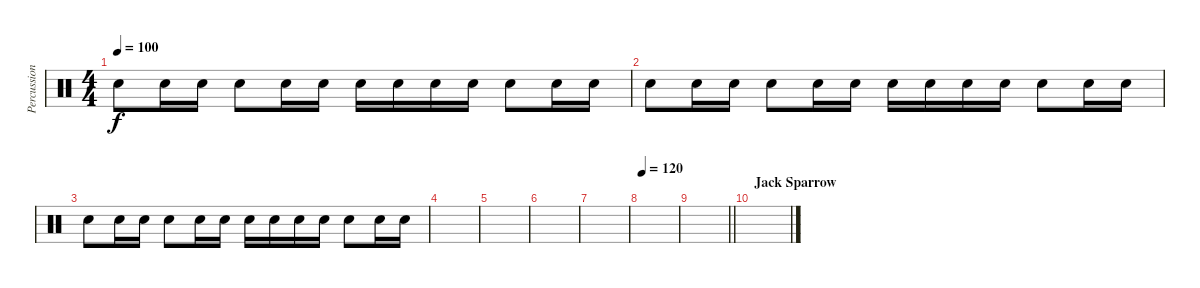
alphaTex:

\track ("Percussions" "Percussion") {instrument percussion}
\staff {score}
\articulation defaults
\ts (4 4)
\tempo 100
\clef neutral
\ks c "Snare (hit) 2".8{dy f} "Snare (hit) 2".16 "Snare (hit) 2".16 "Snare (hit) 2".8 "Snare (hit) 2".16 "Snare (hit) 2".16 "Snare (hit) 2".16 "Snare (hit) 2".16 "Snare (hit) 2".16 "Snare (hit) 2".16 "Snare (hit) 2".8 "Snare (hit) 2".16 "Snare (hit) 2".16
|
"Snare (hit) 2".8 "Snare (hit) 2".16 "Snare (hit) 2".16 "Snare (hit) 2".8 "Snare (hit) 2".16 "Snare (hit) 2".16 "Snare (hit) 2".16 "Snare (hit) 2".16 "Snare (hit) 2".16 "Snare (hit) 2".16 "Snare (hit) 2".8 "Snare (hit) 2".16 "Snare (hit) 2".16 |
"Snare (hit) 2".8 "Snare (hit) 2".16 "Snare (hit) 2".16 "Snare (hit) 2".8 "Snare (hit) 2".16 "Snare (hit) 2".16 "Snare (hit) 2".16 "Snare (hit) 2".16 "Snare (hit) 2".16 "Snare (hit) 2".16 "Snare (hit) 2".8 "Snare (hit) 2".16 "Snare (hit) 2".16 |
|
|
|
|
\tempo 120
|
\barLineRight lightlight
|
\section ("" "Jack Sparrow")
